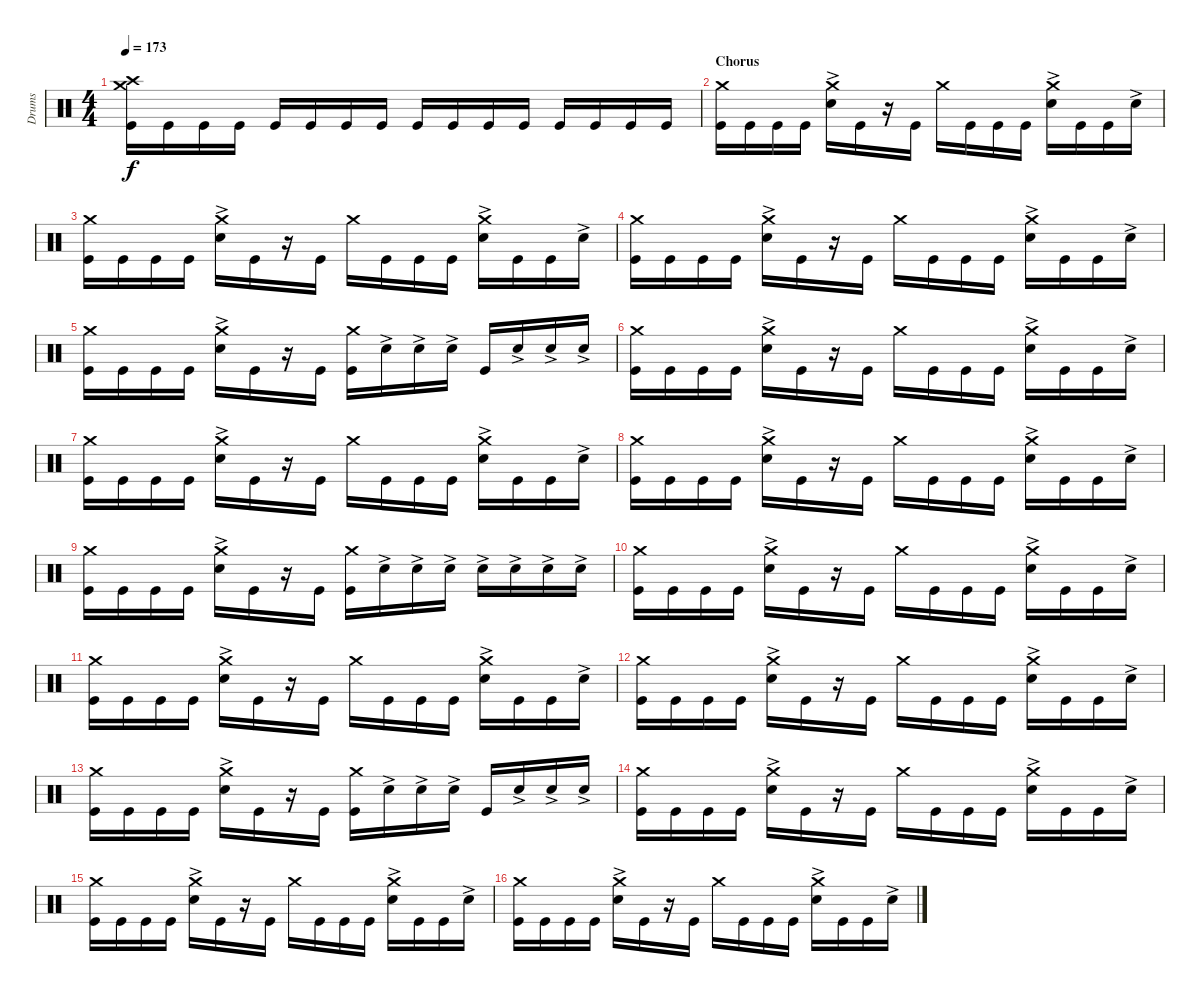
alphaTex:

\track ("Drums" "Drums") {instrument percussion}
\staff {score}
\articulation defaults
\ts (4 4)
\tempo 173
\clef neutral
\ks c
("Kick (hit)" "Crash medium (hit)" "Crash high (hit)").16{dy f} "Kick (hit)".16 "Kick (hit)".16 "Kick (hit)".16 "Kick (hit)".16 "Kick (hit)".16 "Kick (hit)".16 "Kick (hit)".16 "Kick (hit)".16 "Kick (hit)".16 "Kick (hit)".16 "Kick (hit)".16 "Kick (hit)".16 "Kick (hit)".16 "Kick (hit)".16 "Kick (hit)".16 |
\section ("" "Chorus")
("Crash medium (hit)" "Kick (hit)").16 "Kick (hit)".16 "Kick (hit)".16 "Kick (hit)".16 ("Crash medium (hit)" "Snare (hit) 2"{ac}).16 "Kick (hit)".16 r.16 "Kick (hit)".16 "Crash medium (hit)".16 "Kick (hit)".16 "Kick (hit)".16 "Kick (hit)".16 ("Crash medium (hit)" "Snare (hit) 2"{ac}).16 "Kick (hit)".16 "Kick (hit)".16 "Snare (hit) 2"{ac}.16 |
("Crash medium (hit)" "Kick (hit)").16 "Kick (hit)".16 "Kick (hit)".16 "Kick (hit)".16 ("Crash medium (hit)" "Snare (hit) 2"{ac}).16 "Kick (hit)".16 r.16 "Kick (hit)".16 "Crash medium (hit)".16 "Kick (hit)".16 "Kick (hit)".16 "Kick (hit)".16 ("Crash medium (hit)" "Snare (hit) 2"{ac}).16 "Kick (hit)".16 "Kick (hit)".16 "Snare (hit) 2"{ac}.16 |
("Crash medium (hit)" "Kick (hit)").16 "Kick (hit)".16 "Kick (hit)".16 "Kick (hit)".16 ("Crash medium (hit)" "Snare (hit) 2"{ac}).16 "Kick (hit)".16 r.16 "Kick (hit)".16 "Crash medium (hit)".16 "Kick (hit)".16 "Kick (hit)".16 "Kick (hit)".16 ("Crash medium (hit)" "Snare (hit) 2"{ac}).16 "Kick (hit)".16 "Kick (hit)".16 "Snare (hit) 2"{ac}.16 |
("Crash medium (hit)" "Kick (hit)").16 "Kick (hit)".16 "Kick (hit)".16 "Kick (hit)".16 ("Crash medium (hit)" "Snare (hit) 2"{ac}).16 "Kick (hit)".16 r.16 "Kick (hit)".16 ("Kick (hit)" "Crash medium (hit)").16 "Snare (hit) 2"{ac}.16 "Snare (hit) 2"{ac}.16 "Snare (hit) 2"{ac}.16 "Kick (hit)".16 "Snare (hit) 2"{ac}.16 "Snare (hit) 2"{ac}.16 "Snare (hit) 2"{ac}.16 |
("Crash medium (hit)" "Kick (hit)").16 "Kick (hit)".16 "Kick (hit)".16 "Kick (hit)".16 ("Crash medium (hit)" "Snare (hit) 2"{ac}).16 "Kick (hit)".16 r.16 "Kick (hit)".16 "Crash medium (hit)".16 "Kick (hit)".16 "Kick (hit)".16 "Kick (hit)".16 ("Crash medium (hit)" "Snare (hit) 2"{ac}).16 "Kick (hit)".16 "Kick (hit)".16 "Snare (hit) 2"{ac}.16 |
("Crash medium (hit)" "Kick (hit)").16 "Kick (hit)".16 "Kick (hit)".16 "Kick (hit)".16 ("Crash medium (hit)" "Snare (hit) 2"{ac}).16 "Kick (hit)".16 r.16 "Kick (hit)".16 "Crash medium (hit)".16 "Kick (hit)".16 "Kick (hit)".16 "Kick (hit)".16 ("Crash medium (hit)" "Snare (hit) 2"{ac}).16 "Kick (hit)".16 "Kick (hit)".16 "Snare (hit) 2"{ac}.16 |
("Crash medium (hit)" "Kick (hit)").16 "Kick (hit)".16 "Kick (hit)".16 "Kick (hit)".16 ("Crash medium (hit)" "Snare (hit) 2"{ac}).16 "Kick (hit)".16 r.16 "Kick (hit)".16 "Crash medium (hit)".16 "Kick (hit)".16 "Kick (hit)".16 "Kick (hit)".16 ("Crash medium (hit)" "Snare (hit) 2"{ac}).16 "Kick (hit)".16 "Kick (hit)".16 "Snare (hit) 2"{ac}.16 |
("Crash medium (hit)" "Kick (hit)").16 "Kick (hit)".16 "Kick (hit)".16 "Kick (hit)".16 ("Crash medium (hit)" "Snare (hit) 2"{ac}).16 "Kick (hit)".16 r.16 "Kick (hit)".16 ("Kick (hit)" "Crash medium (hit)").16 "Snare (hit) 2"{ac}.16 "Snare (hit) 2"{ac}.16 "Snare (hit) 2"{ac}.16 "Snare (hit) 2"{ac}.16 "Snare (hit) 2"{ac}.16 "Snare (hit) 2"{ac}.16 "Snare (hit) 2"{ac}.16 |
("Crash medium (hit)" "Kick (hit)").16 "Kick (hit)".16 "Kick (hit)".16 "Kick (hit)".16 ("Crash medium (hit)" "Snare (hit) 2"{ac}).16 "Kick (hit)".16 r.16 "Kick (hit)".16 "Crash medium (hit)".16 "Kick (hit)".16 "Kick (hit)".16 "Kick (hit)".16 ("Crash medium (hit)" "Snare (hit) 2"{ac}).16 "Kick (hit)".16 "Kick (hit)".16 "Snare (hit) 2"{ac}.16 |
("Crash medium (hit)" "Kick (hit)").16 "Kick (hit)".16 "Kick (hit)".16 "Kick (hit)".16 ("Crash medium (hit)" "Snare (hit) 2"{ac}).16 "Kick (hit)".16 r.16 "Kick (hit)".16 "Crash medium (hit)".16 "Kick (hit)".16 "Kick (hit)".16 "Kick (hit)".16 ("Crash medium (hit)" "Snare (hit) 2"{ac}).16 "Kick (hit)".16 "Kick (hit)".16 "Snare (hit) 2"{ac}.16 |
("Crash medium (hit)" "Kick (hit)").16 "Kick (hit)".16 "Kick (hit)".16 "Kick (hit)".16 ("Crash medium (hit)" "Snare (hit) 2"{ac}).16 "Kick (hit)".16 r.16 "Kick (hit)".16 "Crash medium (hit)".16 "Kick (hit)".16 "Kick (hit)".16 "Kick (hit)".16 ("Crash medium (hit)" "Snare (hit) 2"{ac}).16 "Kick (hit)".16 "Kick (hit)".16 "Snare (hit) 2"{ac}.16 |
("Crash medium (hit)" "Kick (hit)").16 "Kick (hit)".16 "Kick (hit)".16 "Kick (hit)".16 ("Crash medium (hit)" "Snare (hit) 2"{ac}).16 "Kick (hit)".16 r.16 "Kick (hit)".16 ("Kick (hit)" "Crash medium (hit)").16 "Snare (hit) 2"{ac}.16 "Snare (hit) 2"{ac}.16 "Snare (hit) 2"{ac}.16 "Kick (hit)".16 "Snare (hit) 2"{ac}.16 "Snare (hit) 2"{ac}.16 "Snare (hit) 2"{ac}.16 |
("Crash medium (hit)" "Kick (hit)").16 "Kick (hit)".16 "Kick (hit)".16 "Kick (hit)".16 ("Crash medium (hit)" "Snare (hit) 2"{ac}).16 "Kick (hit)".16 r.16 "Kick (hit)".16 "Crash medium (hit)".16 "Kick (hit)".16 "Kick (hit)".16 "Kick (hit)".16 ("Crash medium (hit)" "Snare (hit) 2"{ac}).16 "Kick (hit)".16 "Kick (hit)".16 "Snare (hit) 2"{ac}.16 |
("Crash medium (hit)" "Kick (hit)").16 "Kick (hit)".16 "Kick (hit)".16 "Kick (hit)".16 ("Crash medium (hit)" "Snare (hit) 2"{ac}).16 "Kick (hit)".16 r.16 "Kick (hit)".16 "Crash medium (hit)".16 "Kick (hit)".16 "Kick (hit)".16 "Kick (hit)".16 ("Crash medium (hit)" "Snare (hit) 2"{ac}).16 "Kick (hit)".16 "Kick (hit)".16 "Snare (hit) 2"{ac}.16 |
("Crash medium (hit)" "Kick (hit)").16 "Kick (hit)".16 "Kick (hit)".16 "Kick (hit)".16 ("Crash medium (hit)" "Snare (hit) 2"{ac}).16 "Kick (hit)".16 r.16 "Kick (hit)".16 "Crash medium (hit)".16 "Kick (hit)".16 "Kick (hit)".16 "Kick (hit)".16 ("Crash medium (hit)" "Snare (hit) 2"{ac}).16 "Kick (hit)".16 "Kick (hit)".16 "Snare (hit) 2"{ac}.16
